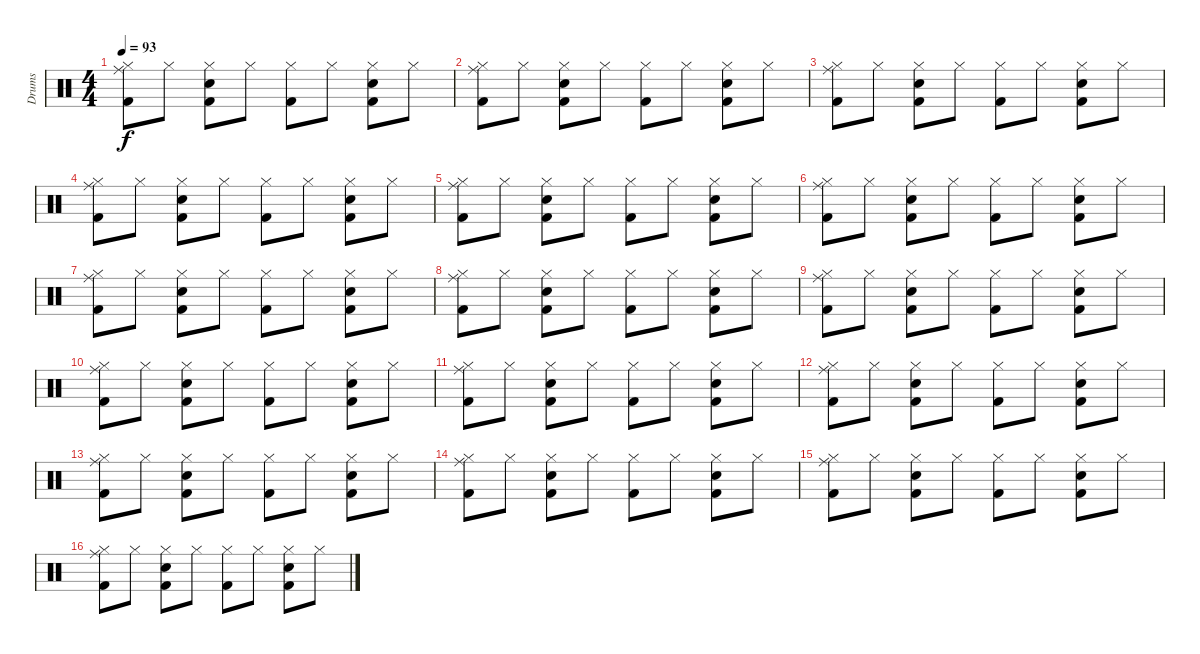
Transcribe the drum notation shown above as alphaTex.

\track ("Drums" "Drums") {instrument percussion}
\staff {score}
\articulation defaults
\ts (4 4)
\tempo 93
\clef neutral
\ks c
("Ride (middle)" "Hi-Hat (closed)" "Kick (hit) 2").8{dy f} "Hi-Hat (closed)".8 ("Hi-Hat (closed)" "Snare (hit) 2" "Kick (hit) 2").8 "Hi-Hat (closed)".8 ("Hi-Hat (closed)" "Kick (hit) 2").8 "Hi-Hat (closed)".8 ("Hi-Hat (closed)" "Snare (hit) 2" "Kick (hit) 2").8 "Hi-Hat (closed)".8 |
("Ride (middle)" "Hi-Hat (closed)" "Kick (hit) 2").8 "Hi-Hat (closed)".8 ("Hi-Hat (closed)" "Snare (hit) 2" "Kick (hit) 2").8 "Hi-Hat (closed)".8 ("Hi-Hat (closed)" "Kick (hit) 2").8 "Hi-Hat (closed)".8 ("Hi-Hat (closed)" "Snare (hit) 2" "Kick (hit) 2").8 "Hi-Hat (closed)".8 |
("Ride (middle)" "Hi-Hat (closed)" "Kick (hit) 2").8 "Hi-Hat (closed)".8 ("Hi-Hat (closed)" "Snare (hit) 2" "Kick (hit) 2").8 "Hi-Hat (closed)".8 ("Hi-Hat (closed)" "Kick (hit) 2").8 "Hi-Hat (closed)".8 ("Hi-Hat (closed)" "Snare (hit) 2" "Kick (hit) 2").8 "Hi-Hat (closed)".8 |
("Ride (middle)" "Hi-Hat (closed)" "Kick (hit) 2").8 "Hi-Hat (closed)".8 ("Hi-Hat (closed)" "Snare (hit) 2" "Kick (hit) 2").8 "Hi-Hat (closed)".8 ("Hi-Hat (closed)" "Kick (hit) 2").8 "Hi-Hat (closed)".8 ("Hi-Hat (closed)" "Snare (hit) 2" "Kick (hit) 2").8 "Hi-Hat (closed)".8 |
("Ride (middle)" "Hi-Hat (closed)" "Kick (hit) 2").8 "Hi-Hat (closed)".8 ("Hi-Hat (closed)" "Snare (hit) 2" "Kick (hit) 2").8 "Hi-Hat (closed)".8 ("Hi-Hat (closed)" "Kick (hit) 2").8 "Hi-Hat (closed)".8 ("Hi-Hat (closed)" "Snare (hit) 2" "Kick (hit) 2").8 "Hi-Hat (closed)".8 |
("Ride (middle)" "Hi-Hat (closed)" "Kick (hit) 2").8 "Hi-Hat (closed)".8 ("Hi-Hat (closed)" "Snare (hit) 2" "Kick (hit) 2").8 "Hi-Hat (closed)".8 ("Hi-Hat (closed)" "Kick (hit) 2").8 "Hi-Hat (closed)".8 ("Hi-Hat (closed)" "Snare (hit) 2" "Kick (hit) 2").8 "Hi-Hat (closed)".8 |
("Ride (middle)" "Hi-Hat (closed)" "Kick (hit) 2").8 "Hi-Hat (closed)".8 ("Hi-Hat (closed)" "Snare (hit) 2" "Kick (hit) 2").8 "Hi-Hat (closed)".8 ("Hi-Hat (closed)" "Kick (hit) 2").8 "Hi-Hat (closed)".8 ("Hi-Hat (closed)" "Snare (hit) 2" "Kick (hit) 2").8 "Hi-Hat (closed)".8 |
("Ride (middle)" "Hi-Hat (closed)" "Kick (hit) 2").8 "Hi-Hat (closed)".8 ("Hi-Hat (closed)" "Snare (hit) 2" "Kick (hit) 2").8 "Hi-Hat (closed)".8 ("Hi-Hat (closed)" "Kick (hit) 2").8 "Hi-Hat (closed)".8 ("Hi-Hat (closed)" "Snare (hit) 2" "Kick (hit) 2").8 "Hi-Hat (closed)".8 |
("Ride (middle)" "Hi-Hat (closed)" "Kick (hit) 2").8 "Hi-Hat (closed)".8 ("Hi-Hat (closed)" "Snare (hit) 2" "Kick (hit) 2").8 "Hi-Hat (closed)".8 ("Hi-Hat (closed)" "Kick (hit) 2").8 "Hi-Hat (closed)".8 ("Hi-Hat (closed)" "Snare (hit) 2" "Kick (hit) 2").8 "Hi-Hat (closed)".8 |
("Ride (middle)" "Hi-Hat (closed)" "Kick (hit) 2").8 "Hi-Hat (closed)".8 ("Hi-Hat (closed)" "Snare (hit) 2" "Kick (hit) 2").8 "Hi-Hat (closed)".8 ("Hi-Hat (closed)" "Kick (hit) 2").8 "Hi-Hat (closed)".8 ("Hi-Hat (closed)" "Snare (hit) 2" "Kick (hit) 2").8 "Hi-Hat (closed)".8 |
("Ride (middle)" "Hi-Hat (closed)" "Kick (hit) 2").8 "Hi-Hat (closed)".8 ("Hi-Hat (closed)" "Snare (hit) 2" "Kick (hit) 2").8 "Hi-Hat (closed)".8 ("Hi-Hat (closed)" "Kick (hit) 2").8 "Hi-Hat (closed)".8 ("Hi-Hat (closed)" "Snare (hit) 2" "Kick (hit) 2").8 "Hi-Hat (closed)".8 |
("Ride (middle)" "Hi-Hat (closed)" "Kick (hit) 2").8 "Hi-Hat (closed)".8 ("Hi-Hat (closed)" "Snare (hit) 2" "Kick (hit) 2").8 "Hi-Hat (closed)".8 ("Hi-Hat (closed)" "Kick (hit) 2").8 "Hi-Hat (closed)".8 ("Hi-Hat (closed)" "Snare (hit) 2" "Kick (hit) 2").8 "Hi-Hat (closed)".8 |
("Ride (middle)" "Hi-Hat (closed)" "Kick (hit) 2").8 "Hi-Hat (closed)".8 ("Hi-Hat (closed)" "Snare (hit) 2" "Kick (hit) 2").8 "Hi-Hat (closed)".8 ("Hi-Hat (closed)" "Kick (hit) 2").8 "Hi-Hat (closed)".8 ("Hi-Hat (closed)" "Snare (hit) 2" "Kick (hit) 2").8 "Hi-Hat (closed)".8 |
("Ride (middle)" "Hi-Hat (closed)" "Kick (hit) 2").8 "Hi-Hat (closed)".8 ("Hi-Hat (closed)" "Snare (hit) 2" "Kick (hit) 2").8 "Hi-Hat (closed)".8 ("Hi-Hat (closed)" "Kick (hit) 2").8 "Hi-Hat (closed)".8 ("Hi-Hat (closed)" "Snare (hit) 2" "Kick (hit) 2").8 "Hi-Hat (closed)".8 |
("Ride (middle)" "Hi-Hat (closed)" "Kick (hit) 2").8 "Hi-Hat (closed)".8 ("Hi-Hat (closed)" "Snare (hit) 2" "Kick (hit) 2").8 "Hi-Hat (closed)".8 ("Hi-Hat (closed)" "Kick (hit) 2").8 "Hi-Hat (closed)".8 ("Hi-Hat (closed)" "Snare (hit) 2" "Kick (hit) 2").8 "Hi-Hat (closed)".8 |
("Ride (middle)" "Hi-Hat (closed)" "Kick (hit) 2").8 "Hi-Hat (closed)".8 ("Hi-Hat (closed)" "Snare (hit) 2" "Kick (hit) 2").8 "Hi-Hat (closed)".8 ("Hi-Hat (closed)" "Kick (hit) 2").8 "Hi-Hat (closed)".8 ("Hi-Hat (closed)" "Snare (hit) 2" "Kick (hit) 2").8 "Hi-Hat (closed)".8
